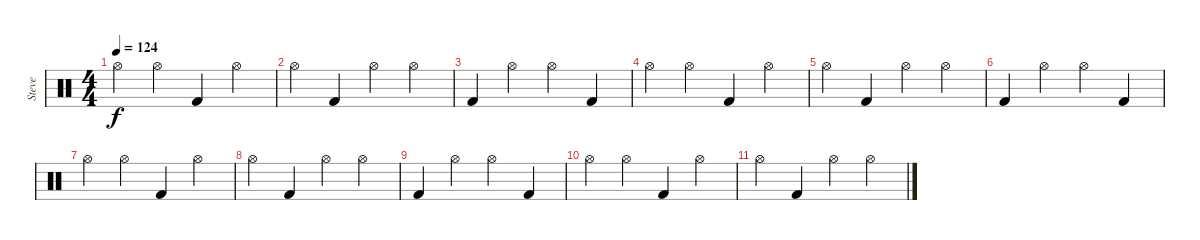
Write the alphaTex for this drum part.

\track ("Steve" "Steve") {instrument percussion}
\staff {score}
\articulation defaults
\ts (4 4)
\tempo 124
\clef neutral
\ks c "Hi-Hat (open)".4{dy f} "Hi-Hat (open)".4 "Kick (hit) 2".4 "Hi-Hat (open)".4
|
"Hi-Hat (open)".4 "Kick (hit) 2".4 "Hi-Hat (open)".4 "Hi-Hat (open)".4 |
"Kick (hit) 2".4 "Hi-Hat (open)".4 "Hi-Hat (open)".4 "Kick (hit) 2".4 |
"Hi-Hat (open)".4 "Hi-Hat (open)".4 "Kick (hit) 2".4 "Hi-Hat (open)".4 |
"Hi-Hat (open)".4 "Kick (hit) 2".4 "Hi-Hat (open)".4 "Hi-Hat (open)".4 |
"Kick (hit) 2".4 "Hi-Hat (open)".4 "Hi-Hat (open)".4 "Kick (hit) 2".4 |
"Hi-Hat (open)".4 "Hi-Hat (open)".4 "Kick (hit) 2".4 "Hi-Hat (open)".4 |
"Hi-Hat (open)".4 "Kick (hit) 2".4 "Hi-Hat (open)".4 "Hi-Hat (open)".4 |
"Kick (hit) 2".4 "Hi-Hat (open)".4 "Hi-Hat (open)".4 "Kick (hit) 2".4 |
"Hi-Hat (open)".4 "Hi-Hat (open)".4 "Kick (hit) 2".4 "Hi-Hat (open)".4 |
"Hi-Hat (open)".4 "Kick (hit) 2".4 "Hi-Hat (open)".4 "Hi-Hat (open)".4
